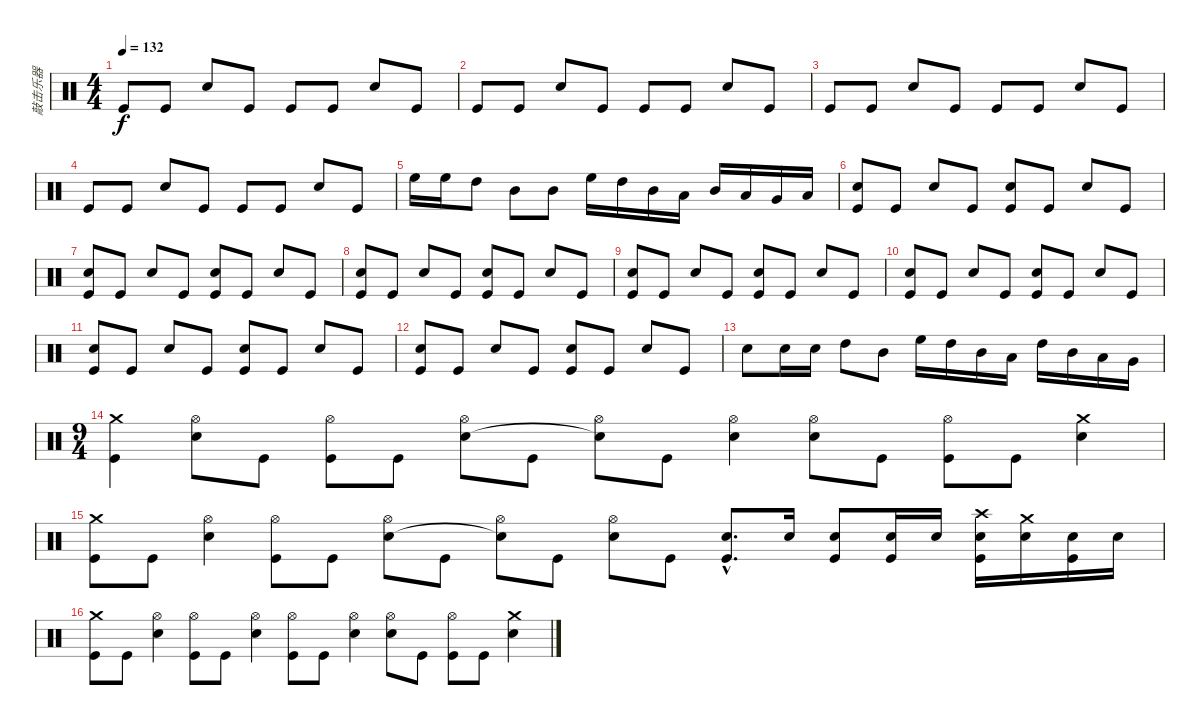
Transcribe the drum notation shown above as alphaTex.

\track ("敲击乐器" "敲击乐器") {instrument percussion}
\staff {score}
\articulation defaults
\ts (4 4)
\tempo 132
\clef neutral
\ks c "Kick (hit)".8{dy f} "Kick (hit)".8 "Snare (hit) 2".8 "Kick (hit)".8 "Kick (hit)".8 "Kick (hit)".8 "Snare (hit) 2".8 "Kick (hit)".8
|
"Kick (hit)".8 "Kick (hit)".8 "Snare (hit) 2".8 "Kick (hit)".8 "Kick (hit)".8 "Kick (hit)".8 "Snare (hit) 2".8 "Kick (hit)".8 |
"Kick (hit)".8 "Kick (hit)".8 "Snare (hit) 2".8 "Kick (hit)".8 "Kick (hit)".8 "Kick (hit)".8 "Snare (hit) 2".8 "Kick (hit)".8 |
"Kick (hit)".8 "Kick (hit)".8 "Snare (hit) 2".8 "Kick (hit)".8 "Kick (hit)".8 "Kick (hit)".8 "Snare (hit) 2".8 "Kick (hit)".8 |
"High Floor Tom (hit)".16 "High Floor Tom (hit)".16 "High Tom (hit)".8 "Mid Tom (hit)".8 "Mid Tom (hit)".8 "High Floor Tom (hit)".16 "High Tom (hit)".16 "Mid Tom (hit)".16 "Low Tom (hit)".16 "Mid Tom (hit)".16 "Low Tom (hit)".16 "Very Low Tom (hit)".16 "Low Floor Tom (hit)".16 |
("Snare (hit) 2" "Kick (hit)").8 "Kick (hit)".8 "Snare (hit) 2".8 "Kick (hit)".8 ("Snare (hit) 2" "Kick (hit)").8 "Kick (hit)".8 "Snare (hit) 2".8 "Kick (hit)".8 |
("Snare (hit) 2" "Kick (hit)").8 "Kick (hit)".8 "Snare (hit) 2".8 "Kick (hit)".8 ("Snare (hit) 2" "Kick (hit)").8 "Kick (hit)".8 "Snare (hit) 2".8 "Kick (hit)".8 |
("Snare (hit) 2" "Kick (hit)").8 "Kick (hit)".8 "Snare (hit) 2".8 "Kick (hit)".8 ("Snare (hit) 2" "Kick (hit)").8 "Kick (hit)".8 "Snare (hit) 2".8 "Kick (hit)".8 |
("Snare (hit) 2" "Kick (hit)").8 "Kick (hit)".8 "Snare (hit) 2".8 "Kick (hit)".8 ("Snare (hit) 2" "Kick (hit)").8 "Kick (hit)".8 "Snare (hit) 2".8 "Kick (hit)".8 |
("Snare (hit) 2" "Kick (hit)").8 "Kick (hit)".8 "Snare (hit) 2".8 "Kick (hit)".8 ("Snare (hit) 2" "Kick (hit)").8 "Kick (hit)".8 "Snare (hit) 2".8 "Kick (hit)".8 |
("Snare (hit) 2" "Kick (hit)").8 "Kick (hit)".8 "Snare (hit) 2".8 "Kick (hit)".8 ("Snare (hit) 2" "Kick (hit)").8 "Kick (hit)".8 "Snare (hit) 2".8 "Kick (hit)".8 |
("Snare (hit) 2" "Kick (hit)").8 "Kick (hit)".8 "Snare (hit) 2".8 "Kick (hit)".8 ("Snare (hit) 2" "Kick (hit)").8 "Kick (hit)".8 "Snare (hit) 2".8 "Kick (hit)".8 |
"Snare (hit) 2".8 "Snare (hit) 2".16 "Snare (hit) 2".16 "High Tom (hit)".8 "Mid Tom (hit)".8 "High Floor Tom (hit)".16 "High Tom (hit)".16 "Mid Tom (hit)".16 "Low Tom (hit)".16 "High Tom (hit)".16 "Mid Tom (hit)".16 "Low Tom (hit)".16 "Very Low Tom (hit)".16 |
\ts (9 4)
("Crash medium (hit)" "Kick (hit)").4 ("Hi-Hat (open)" "Snare (hit) 2").8 "Kick (hit)".8 ("Hi-Hat (open)" "Kick (hit)").8 "Kick (hit)".8 ("Hi-Hat (open)" "Snare (hit) 2").8 "Kick (hit)".8 ("Hi-Hat (open)" "Snare (hit)"{t}).8 "Kick (hit)".8 ("Hi-Hat (open)" "Snare (hit) 2").4 ("Hi-Hat (open)" "Snare (hit) 2").8 "Kick (hit)".8 ("Hi-Hat (open)" "Kick (hit)").8 "Kick (hit)".8 ("Crash medium (hit)" "Snare (hit) 2").4 |
("Crash medium (hit)" "Kick (hit)").8 "Kick (hit)".8 ("Hi-Hat (open)" "Snare (hit) 2").4 ("Hi-Hat (open)" "Kick (hit)").8 "Kick (hit)".8 ("Hi-Hat (open)" "Snare (hit) 2").8 "Kick (hit)".8 ("Hi-Hat (open)" "Snare (hit)"{t}).8 "Kick (hit)".8 ("Hi-Hat (open)" "Snare (hit) 2").8 "Kick (hit)".8 ("Snare (hit) 2"{hac} "Kick (hit)"{hac}).8{d} "Snare (hit) 2".16 ("Snare (hit) 2" "Kick (hit)").8 ("Snare (hit) 2" "Kick (hit)").16 "Snare (hit) 2".16 ("Crash high (hit)" "Snare (hit) 2" "Kick (hit)").16 ("Crash medium (hit)" "Snare (hit) 2").16 ("Snare (hit) 2" "Kick (hit)").16 "Snare (hit) 2".16 |
("Crash medium (hit)" "Kick (hit)").8 "Kick (hit)".8 ("Hi-Hat (open)" "Snare (hit) 2").4 ("Hi-Hat (open)" "Kick (hit)").8 "Kick (hit)".8 ("Hi-Hat (open)" "Snare (hit) 2").4 ("Hi-Hat (open)" "Kick (hit)").8 "Kick (hit)".8 ("Hi-Hat (open)" "Snare (hit) 2").4 ("Hi-Hat (open)" "Snare (hit) 2").8 "Kick (hit)".8 ("Hi-Hat (open)" "Kick (hit)").8 "Kick (hit)".8 ("Crash medium (hit)" "Snare (hit) 2").4
